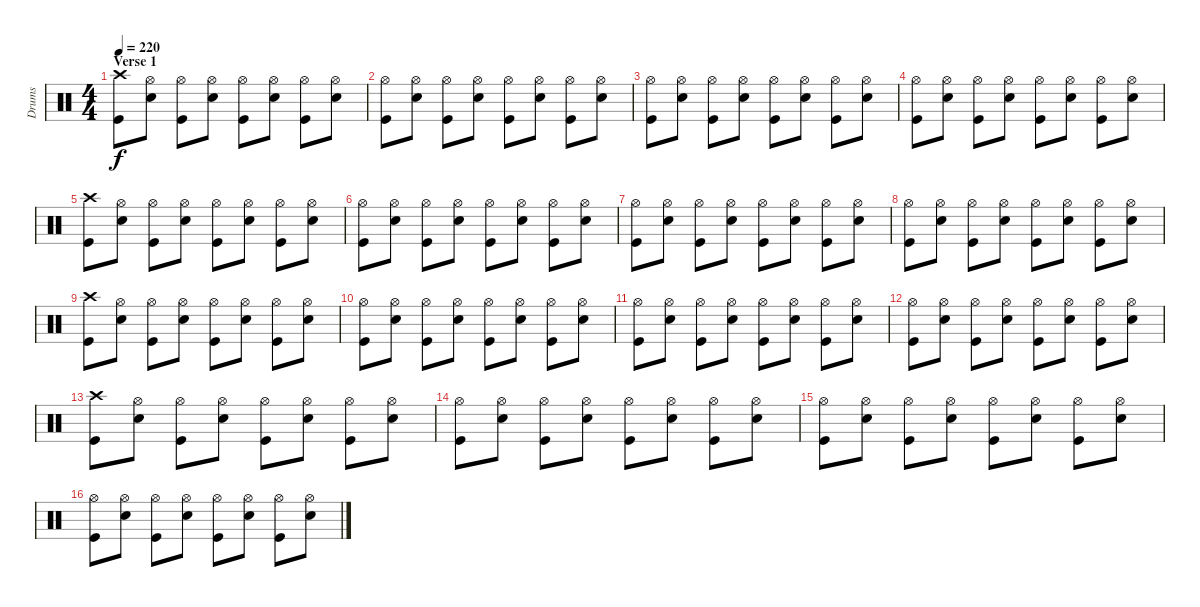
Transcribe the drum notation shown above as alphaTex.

\track ("Drums" "Drums") {instrument percussion}
\staff {score}
\articulation defaults
\ts (4 4)
\section ("" "Verse 1")
\tempo 220
\clef neutral
\ks c
("Crash high (hit)" "Kick (hit)").8{dy f} ("Hi-Hat (open)" "Electric Snare (hit)").8 ("Hi-Hat (open)" "Kick (hit)").8 ("Hi-Hat (open)" "Electric Snare (hit)").8 ("Hi-Hat (open)" "Kick (hit)").8 ("Hi-Hat (open)" "Electric Snare (hit)").8 ("Hi-Hat (open)" "Kick (hit)").8 ("Hi-Hat (open)" "Electric Snare (hit)").8 |
("Hi-Hat (open)" "Kick (hit)").8 ("Hi-Hat (open)" "Electric Snare (hit)").8 ("Hi-Hat (open)" "Kick (hit)").8 ("Hi-Hat (open)" "Electric Snare (hit)").8 ("Hi-Hat (open)" "Kick (hit)").8 ("Hi-Hat (open)" "Electric Snare (hit)").8 ("Hi-Hat (open)" "Kick (hit)").8 ("Hi-Hat (open)" "Electric Snare (hit)").8 |
("Hi-Hat (open)" "Kick (hit)").8 ("Hi-Hat (open)" "Electric Snare (hit)").8 ("Hi-Hat (open)" "Kick (hit)").8 ("Hi-Hat (open)" "Electric Snare (hit)").8 ("Hi-Hat (open)" "Kick (hit)").8 ("Hi-Hat (open)" "Electric Snare (hit)").8 ("Hi-Hat (open)" "Kick (hit)").8 ("Hi-Hat (open)" "Electric Snare (hit)").8 |
("Hi-Hat (open)" "Kick (hit)").8 ("Hi-Hat (open)" "Electric Snare (hit)").8 ("Hi-Hat (open)" "Kick (hit)").8 ("Hi-Hat (open)" "Electric Snare (hit)").8 ("Hi-Hat (open)" "Kick (hit)").8 ("Hi-Hat (open)" "Electric Snare (hit)").8 ("Hi-Hat (open)" "Kick (hit)").8 ("Hi-Hat (open)" "Electric Snare (hit)").8 |
("Crash high (hit)" "Kick (hit)").8 ("Hi-Hat (open)" "Electric Snare (hit)").8 ("Hi-Hat (open)" "Kick (hit)").8 ("Hi-Hat (open)" "Electric Snare (hit)").8 ("Hi-Hat (open)" "Kick (hit)").8 ("Hi-Hat (open)" "Electric Snare (hit)").8 ("Hi-Hat (open)" "Kick (hit)").8 ("Hi-Hat (open)" "Electric Snare (hit)").8 |
("Hi-Hat (open)" "Kick (hit)").8 ("Hi-Hat (open)" "Electric Snare (hit)").8 ("Hi-Hat (open)" "Kick (hit)").8 ("Hi-Hat (open)" "Electric Snare (hit)").8 ("Hi-Hat (open)" "Kick (hit)").8 ("Hi-Hat (open)" "Electric Snare (hit)").8 ("Hi-Hat (open)" "Kick (hit)").8 ("Hi-Hat (open)" "Electric Snare (hit)").8 |
("Hi-Hat (open)" "Kick (hit)").8 ("Hi-Hat (open)" "Electric Snare (hit)").8 ("Hi-Hat (open)" "Kick (hit)").8 ("Hi-Hat (open)" "Electric Snare (hit)").8 ("Hi-Hat (open)" "Kick (hit)").8 ("Hi-Hat (open)" "Electric Snare (hit)").8 ("Hi-Hat (open)" "Kick (hit)").8 ("Hi-Hat (open)" "Electric Snare (hit)").8 |
("Hi-Hat (open)" "Kick (hit)").8 ("Hi-Hat (open)" "Electric Snare (hit)").8 ("Hi-Hat (open)" "Kick (hit)").8 ("Hi-Hat (open)" "Electric Snare (hit)").8 ("Hi-Hat (open)" "Kick (hit)").8 ("Hi-Hat (open)" "Electric Snare (hit)").8 ("Hi-Hat (open)" "Kick (hit)").8 ("Hi-Hat (open)" "Electric Snare (hit)").8 |
("Crash high (hit)" "Kick (hit)").8 ("Hi-Hat (open)" "Electric Snare (hit)").8 ("Hi-Hat (open)" "Kick (hit)").8 ("Hi-Hat (open)" "Electric Snare (hit)").8 ("Hi-Hat (open)" "Kick (hit)").8 ("Hi-Hat (open)" "Electric Snare (hit)").8 ("Hi-Hat (open)" "Kick (hit)").8 ("Hi-Hat (open)" "Electric Snare (hit)").8 |
("Hi-Hat (open)" "Kick (hit)").8 ("Hi-Hat (open)" "Electric Snare (hit)").8 ("Hi-Hat (open)" "Kick (hit)").8 ("Hi-Hat (open)" "Electric Snare (hit)").8 ("Hi-Hat (open)" "Kick (hit)").8 ("Hi-Hat (open)" "Electric Snare (hit)").8 ("Hi-Hat (open)" "Kick (hit)").8 ("Hi-Hat (open)" "Electric Snare (hit)").8 |
("Hi-Hat (open)" "Kick (hit)").8 ("Hi-Hat (open)" "Electric Snare (hit)").8 ("Hi-Hat (open)" "Kick (hit)").8 ("Hi-Hat (open)" "Electric Snare (hit)").8 ("Hi-Hat (open)" "Kick (hit)").8 ("Hi-Hat (open)" "Electric Snare (hit)").8 ("Hi-Hat (open)" "Kick (hit)").8 ("Hi-Hat (open)" "Electric Snare (hit)").8 |
("Hi-Hat (open)" "Kick (hit)").8 ("Hi-Hat (open)" "Electric Snare (hit)").8 ("Hi-Hat (open)" "Kick (hit)").8 ("Hi-Hat (open)" "Electric Snare (hit)").8 ("Hi-Hat (open)" "Kick (hit)").8 ("Hi-Hat (open)" "Electric Snare (hit)").8 ("Hi-Hat (open)" "Kick (hit)").8 ("Hi-Hat (open)" "Electric Snare (hit)").8 |
("Crash high (hit)" "Kick (hit)").8 ("Hi-Hat (open)" "Electric Snare (hit)").8 ("Hi-Hat (open)" "Kick (hit)").8 ("Hi-Hat (open)" "Electric Snare (hit)").8 ("Hi-Hat (open)" "Kick (hit)").8 ("Hi-Hat (open)" "Electric Snare (hit)").8 ("Hi-Hat (open)" "Kick (hit)").8 ("Hi-Hat (open)" "Electric Snare (hit)").8 |
("Hi-Hat (open)" "Kick (hit)").8 ("Hi-Hat (open)" "Electric Snare (hit)").8 ("Hi-Hat (open)" "Kick (hit)").8 ("Hi-Hat (open)" "Electric Snare (hit)").8 ("Hi-Hat (open)" "Kick (hit)").8 ("Hi-Hat (open)" "Electric Snare (hit)").8 ("Hi-Hat (open)" "Kick (hit)").8 ("Hi-Hat (open)" "Electric Snare (hit)").8 |
("Hi-Hat (open)" "Kick (hit)").8 ("Hi-Hat (open)" "Electric Snare (hit)").8 ("Hi-Hat (open)" "Kick (hit)").8 ("Hi-Hat (open)" "Electric Snare (hit)").8 ("Hi-Hat (open)" "Kick (hit)").8 ("Hi-Hat (open)" "Electric Snare (hit)").8 ("Hi-Hat (open)" "Kick (hit)").8 ("Hi-Hat (open)" "Electric Snare (hit)").8 |
("Hi-Hat (open)" "Kick (hit)").8 ("Hi-Hat (open)" "Electric Snare (hit)").8 ("Hi-Hat (open)" "Kick (hit)").8 ("Hi-Hat (open)" "Electric Snare (hit)").8 ("Hi-Hat (open)" "Kick (hit)").8 ("Hi-Hat (open)" "Electric Snare (hit)").8 ("Hi-Hat (open)" "Kick (hit)").8 ("Hi-Hat (open)" "Electric Snare (hit)").8
